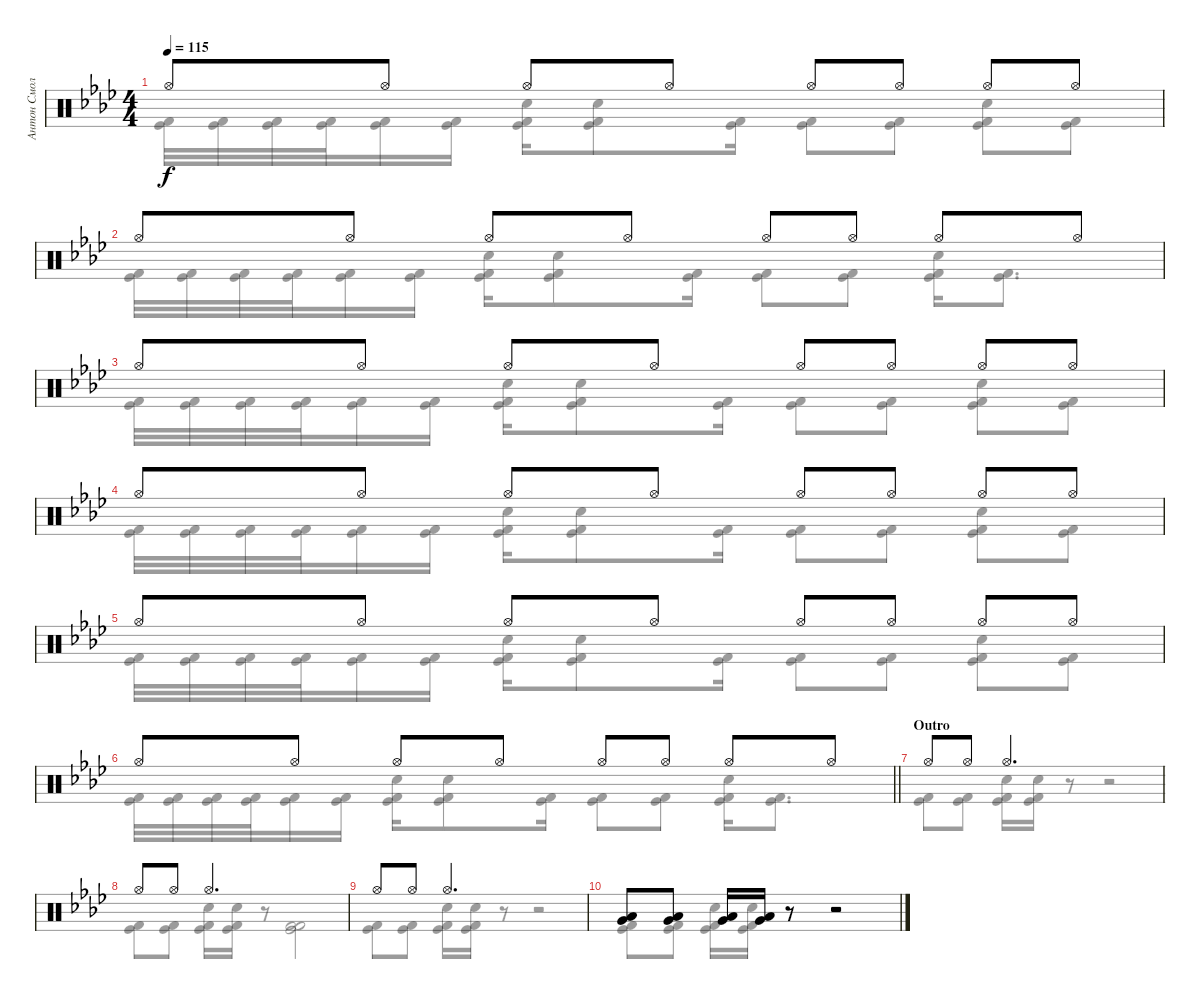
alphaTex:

\track ("Антон Смольянин" "Антон Смол") {instrument percussion}
\staff {score}
\articulation defaults
\voice
\ts (4 4)
\tempo 115
\clef neutral
\ks ab "Hi-Hat (open)".8{dy f} "Hi-Hat (open)".8 "Hi-Hat (open)".8 "Hi-Hat (open)".8 "Hi-Hat (open)".8 "Hi-Hat (open)".8 "Hi-Hat (open)".8 "Hi-Hat (open)".8
|
"Hi-Hat (open)".8 "Hi-Hat (open)".8 "Hi-Hat (open)".8 "Hi-Hat (open)".8 "Hi-Hat (open)".8 "Hi-Hat (open)".8 "Hi-Hat (open)".8 "Hi-Hat (open)".8 |
"Hi-Hat (open)".8 "Hi-Hat (open)".8 "Hi-Hat (open)".8 "Hi-Hat (open)".8 "Hi-Hat (open)".8 "Hi-Hat (open)".8 "Hi-Hat (open)".8 "Hi-Hat (open)".8 |
"Hi-Hat (open)".8 "Hi-Hat (open)".8 "Hi-Hat (open)".8 "Hi-Hat (open)".8 "Hi-Hat (open)".8 "Hi-Hat (open)".8 "Hi-Hat (open)".8 "Hi-Hat (open)".8 |
"Hi-Hat (open)".8 "Hi-Hat (open)".8 "Hi-Hat (open)".8 "Hi-Hat (open)".8 "Hi-Hat (open)".8 "Hi-Hat (open)".8 "Hi-Hat (open)".8 "Hi-Hat (open)".8 |
\barLineRight lightlight "Hi-Hat (open)".8 "Hi-Hat (open)".8 "Hi-Hat (open)".8 "Hi-Hat (open)".8 "Hi-Hat (open)".8 "Hi-Hat (open)".8 "Hi-Hat (open)".8 "Hi-Hat (open)".8
|
\section ("" "Outro")
"Hi-Hat (open)".8 "Hi-Hat (open)".8 "Hi-Hat (open)".2{d} |
"Hi-Hat (open)".8 "Hi-Hat (open)".8 "Hi-Hat (open)".2{d} |
"Hi-Hat (open)".8 "Hi-Hat (open)".8 "Hi-Hat (open)".2{d} |
("Very Low Tom (hit)" "Low Tom (hit)").8 ("Very Low Tom (hit)" "Low Tom (hit)").8 ("Very Low Tom (hit)" "Low Tom (hit)").16 ("Very Low Tom (hit)" "Low Tom (hit)").16 r.8 r.2
\voice
\clef neutral
\ottava regular
\simile none
\ks ab
("Kick (hit) 2" "Kick (hit)").32{dy f} ("Kick (hit) 2" "Kick (hit)").32 ("Kick (hit) 2" "Kick (hit)").32 ("Kick (hit) 2" "Kick (hit)").32 ("Kick (hit) 2" "Kick (hit)").16 ("Kick (hit) 2" "Kick (hit)").16 ("Kick (hit) 2" "Kick (hit)" "Electric Snare (hit)").16 ("Kick (hit) 2" "Kick (hit)" "Electric Snare (hit)").8 ("Kick (hit) 2" "Kick (hit)").16 ("Kick (hit) 2" "Kick (hit)").8 ("Kick (hit) 2" "Kick (hit)").8 ("Kick (hit) 2" "Kick (hit)" "Electric Snare (hit)").8 ("Kick (hit) 2" "Kick (hit)").8 |
("Kick (hit) 2" "Kick (hit)").32 ("Kick (hit) 2" "Kick (hit)").32 ("Kick (hit) 2" "Kick (hit)").32 ("Kick (hit) 2" "Kick (hit)").32 ("Kick (hit) 2" "Kick (hit)").16 ("Kick (hit) 2" "Kick (hit)").16 ("Kick (hit) 2" "Kick (hit)" "Electric Snare (hit)").16 ("Kick (hit) 2" "Kick (hit)" "Electric Snare (hit)").8 ("Kick (hit) 2" "Kick (hit)").16 ("Kick (hit) 2" "Kick (hit)").8 ("Kick (hit) 2" "Kick (hit)").8 ("Kick (hit) 2" "Kick (hit)" "Electric Snare (hit)").16 ("Kick (hit) 2" "Kick (hit)").8{d} |
("Kick (hit) 2" "Kick (hit)").32 ("Kick (hit) 2" "Kick (hit)").32 ("Kick (hit) 2" "Kick (hit)").32 ("Kick (hit) 2" "Kick (hit)").32 ("Kick (hit) 2" "Kick (hit)").16 ("Kick (hit) 2" "Kick (hit)").16 ("Kick (hit) 2" "Kick (hit)" "Electric Snare (hit)").16 ("Kick (hit) 2" "Kick (hit)" "Electric Snare (hit)").8 ("Kick (hit) 2" "Kick (hit)").16 ("Kick (hit) 2" "Kick (hit)").8 ("Kick (hit) 2" "Kick (hit)").8 ("Kick (hit) 2" "Kick (hit)" "Electric Snare (hit)").8 ("Kick (hit) 2" "Kick (hit)").8 |
("Kick (hit) 2" "Kick (hit)").32 ("Kick (hit) 2" "Kick (hit)").32 ("Kick (hit) 2" "Kick (hit)").32 ("Kick (hit) 2" "Kick (hit)").32 ("Kick (hit) 2" "Kick (hit)").16 ("Kick (hit) 2" "Kick (hit)").16 ("Kick (hit) 2" "Kick (hit)" "Electric Snare (hit)").16 ("Kick (hit) 2" "Kick (hit)" "Electric Snare (hit)").8 ("Kick (hit) 2" "Kick (hit)").16 ("Kick (hit) 2" "Kick (hit)").8 ("Kick (hit) 2" "Kick (hit)").8 ("Kick (hit) 2" "Kick (hit)" "Electric Snare (hit)").8 ("Kick (hit) 2" "Kick (hit)").8 |
("Kick (hit) 2" "Kick (hit)").32 ("Kick (hit) 2" "Kick (hit)").32 ("Kick (hit) 2" "Kick (hit)").32 ("Kick (hit) 2" "Kick (hit)").32 ("Kick (hit) 2" "Kick (hit)").16 ("Kick (hit) 2" "Kick (hit)").16 ("Kick (hit) 2" "Kick (hit)" "Electric Snare (hit)").16 ("Kick (hit) 2" "Kick (hit)" "Electric Snare (hit)").8 ("Kick (hit) 2" "Kick (hit)").16 ("Kick (hit) 2" "Kick (hit)").8 ("Kick (hit) 2" "Kick (hit)").8 ("Kick (hit) 2" "Kick (hit)" "Electric Snare (hit)").8 ("Kick (hit) 2" "Kick (hit)").8 |
\barLineRight lightlight
("Kick (hit) 2" "Kick (hit)").32 ("Kick (hit) 2" "Kick (hit)").32 ("Kick (hit) 2" "Kick (hit)").32 ("Kick (hit) 2" "Kick (hit)").32 ("Kick (hit) 2" "Kick (hit)").16 ("Kick (hit) 2" "Kick (hit)").16 ("Kick (hit) 2" "Kick (hit)" "Electric Snare (hit)").16 ("Kick (hit) 2" "Kick (hit)" "Electric Snare (hit)").8 ("Kick (hit) 2" "Kick (hit)").16 ("Kick (hit) 2" "Kick (hit)").8 ("Kick (hit) 2" "Kick (hit)").8 ("Kick (hit) 2" "Kick (hit)" "Electric Snare (hit)").16 ("Kick (hit) 2" "Kick (hit)").8{d} |
("Kick (hit) 2" "Kick (hit)").8 ("Kick (hit) 2" "Kick (hit)").8 ("Kick (hit) 2" "Kick (hit)" "Electric Snare (hit)").16 ("Kick (hit) 2" "Kick (hit)" "Electric Snare (hit)").16 r.8 r.2 |
("Kick (hit) 2" "Kick (hit)").8 ("Kick (hit) 2" "Kick (hit)").8 ("Kick (hit) 2" "Kick (hit)" "Electric Snare (hit)").16 ("Kick (hit) 2" "Kick (hit)" "Electric Snare (hit)").16 r.8 ("Kick (hit) 2" "Kick (hit)" "Kick (hit) 2").2 |
("Kick (hit) 2" "Kick (hit)").8 ("Kick (hit) 2" "Kick (hit)").8 ("Kick (hit) 2" "Kick (hit)" "Electric Snare (hit)").16 ("Kick (hit) 2" "Kick (hit)" "Electric Snare (hit)").16 r.8 r.2 |
("Kick (hit) 2" "Kick (hit)").8 ("Kick (hit) 2" "Kick (hit)").8 ("Kick (hit) 2" "Kick (hit)" "Electric Snare (hit)").16 ("Kick (hit) 2" "Kick (hit)" "Electric Snare (hit)").16 r.8 r.2
